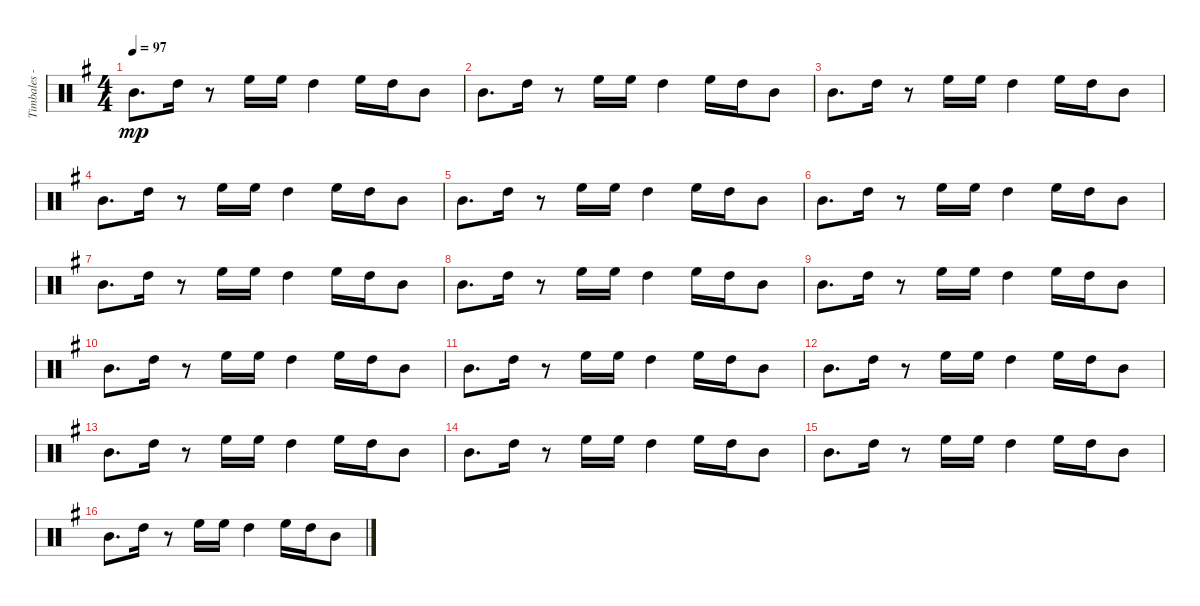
\track ("Timbales - Alex Acuna" "Timbales -") {instrument percussion}
\staff {score}
\articulation defaults
\ts (4 4)
\tempo 97
\clef neutral
\ks g "Mid Tom (hit)".8{d dy mp} "High Tom (hit)".16
r.8 "High Floor Tom (hit)".16 "High Floor Tom (hit)".16 "High Tom (hit)".4 "High Floor Tom (hit)".16 "High Tom (hit)".16 "Mid Tom (hit)".8 |
"Mid Tom (hit)".8{d} "High Tom (hit)".16 r.8 "High Floor Tom (hit)".16 "High Floor Tom (hit)".16 "High Tom (hit)".4 "High Floor Tom (hit)".16 "High Tom (hit)".16 "Mid Tom (hit)".8 |
"Mid Tom (hit)".8{d} "High Tom (hit)".16 r.8 "High Floor Tom (hit)".16 "High Floor Tom (hit)".16 "High Tom (hit)".4 "High Floor Tom (hit)".16 "High Tom (hit)".16 "Mid Tom (hit)".8 |
"Mid Tom (hit)".8{d} "High Tom (hit)".16 r.8 "High Floor Tom (hit)".16 "High Floor Tom (hit)".16 "High Tom (hit)".4 "High Floor Tom (hit)".16 "High Tom (hit)".16 "Mid Tom (hit)".8 |
"Mid Tom (hit)".8{d} "High Tom (hit)".16 r.8 "High Floor Tom (hit)".16 "High Floor Tom (hit)".16 "High Tom (hit)".4 "High Floor Tom (hit)".16 "High Tom (hit)".16 "Mid Tom (hit)".8 |
"Mid Tom (hit)".8{d} "High Tom (hit)".16 r.8 "High Floor Tom (hit)".16 "High Floor Tom (hit)".16 "High Tom (hit)".4 "High Floor Tom (hit)".16 "High Tom (hit)".16 "Mid Tom (hit)".8 |
"Mid Tom (hit)".8{d} "High Tom (hit)".16 r.8 "High Floor Tom (hit)".16 "High Floor Tom (hit)".16 "High Tom (hit)".4 "High Floor Tom (hit)".16 "High Tom (hit)".16 "Mid Tom (hit)".8 |
"Mid Tom (hit)".8{d} "High Tom (hit)".16 r.8 "High Floor Tom (hit)".16 "High Floor Tom (hit)".16 "High Tom (hit)".4 "High Floor Tom (hit)".16 "High Tom (hit)".16 "Mid Tom (hit)".8 |
"Mid Tom (hit)".8{d} "High Tom (hit)".16 r.8 "High Floor Tom (hit)".16 "High Floor Tom (hit)".16 "High Tom (hit)".4 "High Floor Tom (hit)".16 "High Tom (hit)".16 "Mid Tom (hit)".8 |
"Mid Tom (hit)".8{d} "High Tom (hit)".16 r.8 "High Floor Tom (hit)".16 "High Floor Tom (hit)".16 "High Tom (hit)".4 "High Floor Tom (hit)".16 "High Tom (hit)".16 "Mid Tom (hit)".8 |
"Mid Tom (hit)".8{d} "High Tom (hit)".16 r.8 "High Floor Tom (hit)".16 "High Floor Tom (hit)".16 "High Tom (hit)".4 "High Floor Tom (hit)".16 "High Tom (hit)".16 "Mid Tom (hit)".8 |
"Mid Tom (hit)".8{d} "High Tom (hit)".16 r.8 "High Floor Tom (hit)".16 "High Floor Tom (hit)".16 "High Tom (hit)".4 "High Floor Tom (hit)".16 "High Tom (hit)".16 "Mid Tom (hit)".8 |
"Mid Tom (hit)".8{d} "High Tom (hit)".16 r.8 "High Floor Tom (hit)".16 "High Floor Tom (hit)".16 "High Tom (hit)".4 "High Floor Tom (hit)".16 "High Tom (hit)".16 "Mid Tom (hit)".8 |
"Mid Tom (hit)".8{d} "High Tom (hit)".16 r.8 "High Floor Tom (hit)".16 "High Floor Tom (hit)".16 "High Tom (hit)".4 "High Floor Tom (hit)".16 "High Tom (hit)".16 "Mid Tom (hit)".8 |
"Mid Tom (hit)".8{d} "High Tom (hit)".16 r.8 "High Floor Tom (hit)".16 "High Floor Tom (hit)".16 "High Tom (hit)".4 "High Floor Tom (hit)".16 "High Tom (hit)".16 "Mid Tom (hit)".8 |
"Mid Tom (hit)".8{d} "High Tom (hit)".16 r.8 "High Floor Tom (hit)".16 "High Floor Tom (hit)".16 "High Tom (hit)".4 "High Floor Tom (hit)".16 "High Tom (hit)".16 "Mid Tom (hit)".8
